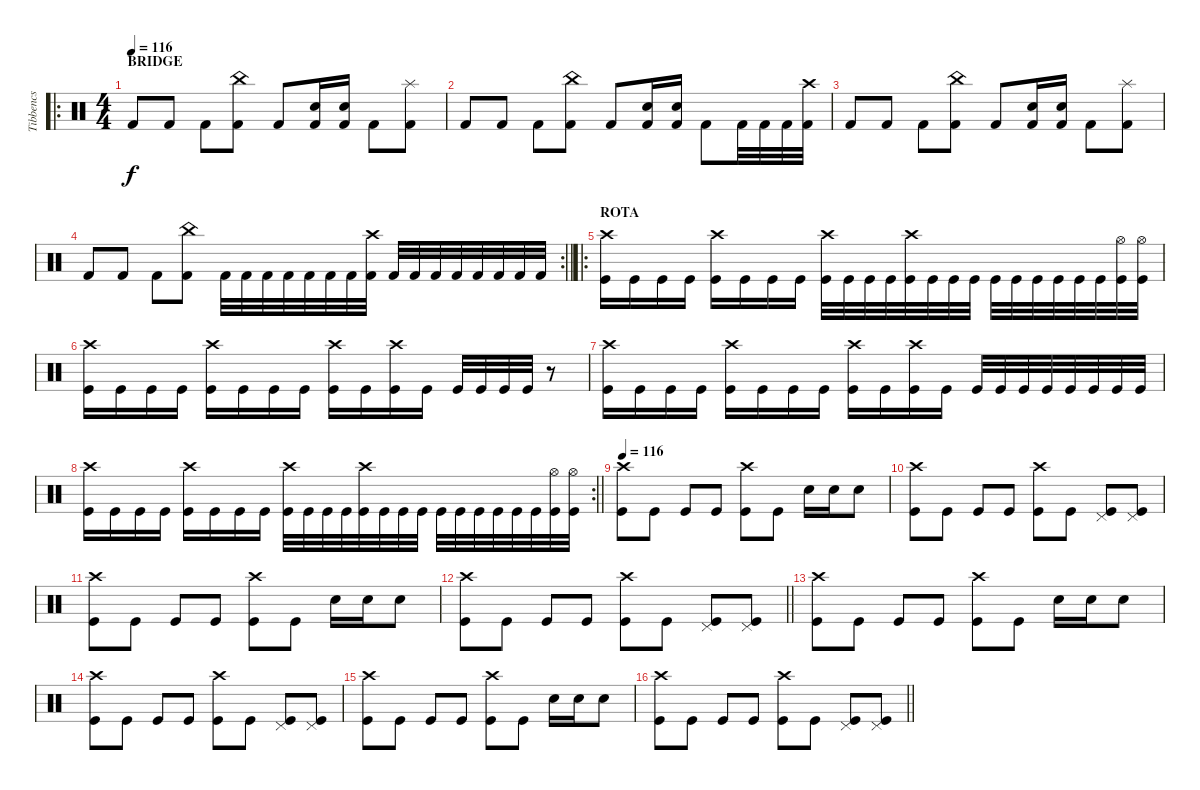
\track ("Tibbencs" "Tibbencs") {instrument percussion}
\staff {score}
\articulation defaults
\ro
\ts (4 4)
\section ("" "BRIDGE")
\tempo 116
\clef neutral
\ks c "Kick (hit) 2".8{dy f} "Kick (hit) 2".8 "Kick (hit) 2".8
("Kick (hit) 2" "China (hit)").8 "Kick (hit) 2".8 ("Kick (hit) 2" "Electric Snare (hit)").16 ("Kick (hit) 2" "Electric Snare (hit)").16 "Kick (hit) 2".8 ("Kick (hit) 2" "Splash (hit)").8 |
"Kick (hit) 2".8 "Kick (hit) 2".8 "Kick (hit) 2".8 ("Kick (hit) 2" "China (hit)").8 "Kick (hit) 2".8 ("Kick (hit) 2" "Electric Snare (hit)").16 ("Kick (hit) 2" "Electric Snare (hit)").16 "Kick (hit) 2".8 "Kick (hit) 2".32 "Kick (hit) 2".32 "Kick (hit) 2".32 ("Kick (hit) 2" "Crash high (hit)").32 |
"Kick (hit) 2".8 "Kick (hit) 2".8 "Kick (hit) 2".8 ("Kick (hit) 2" "China (hit)").8 "Kick (hit) 2".8 ("Kick (hit) 2" "Electric Snare (hit)").16 ("Kick (hit) 2" "Electric Snare (hit)").16 "Kick (hit) 2".8 ("Kick (hit) 2" "Splash (hit)").8 |
\rc 2
\barLineRight lightlight "Kick (hit) 2".8 "Kick (hit) 2".8 "Kick (hit) 2".8
("Kick (hit) 2" "China (hit)").8 "Kick (hit) 2".32 "Kick (hit) 2".32 "Kick (hit) 2".32 "Kick (hit) 2".32 "Kick (hit) 2".32 "Kick (hit) 2".32 "Kick (hit) 2".32 ("Kick (hit) 2" "Crash high (hit)").32 "Kick (hit) 2".32 "Kick (hit) 2".32 "Kick (hit) 2".32 "Kick (hit) 2".32 "Kick (hit) 2".32 "Kick (hit) 2".32 "Kick (hit) 2".32 "Kick (hit) 2".32 |
\ro
\section ("" "ROTA")
("Kick (hit)" "Crash high (hit)").16 "Kick (hit)".16 "Kick (hit)".16 "Kick (hit)".16 ("Kick (hit)" "Crash high (hit)").16 "Kick (hit)".16 "Kick (hit)".16 "Kick (hit)".16 ("Kick (hit)" "Crash high (hit)").32 "Kick (hit)".32 "Kick (hit)".32 "Kick (hit)".32 ("Kick (hit)" "Crash high (hit)").32 "Kick (hit)".32 "Kick (hit)".32 "Kick (hit)".32 "Kick (hit)".32 "Kick (hit)".32 "Kick (hit)".32 "Kick (hit)".32 "Kick (hit)".32 "Kick (hit)".32 ("Kick (hit)" "Hi-Hat (open)").32 ("Kick (hit)" "Hi-Hat (open)").32 |
("Kick (hit)" "Crash high (hit)").16 "Kick (hit)".16 "Kick (hit)".16 "Kick (hit)".16 ("Kick (hit)" "Crash high (hit)").16 "Kick (hit)".16 "Kick (hit)".16 "Kick (hit)".16 ("Kick (hit)" "Crash high (hit)").16 "Kick (hit)".16 ("Kick (hit)" "Crash high (hit)").16 "Kick (hit)".16 "Kick (hit)".32 "Kick (hit)".32 "Kick (hit)".32 "Kick (hit)".32 r.8 |
("Kick (hit)" "Crash high (hit)").16 "Kick (hit)".16 "Kick (hit)".16 "Kick (hit)".16 ("Kick (hit)" "Crash high (hit)").16 "Kick (hit)".16 "Kick (hit)".16 "Kick (hit)".16 ("Kick (hit)" "Crash high (hit)").16 "Kick (hit)".16 ("Kick (hit)" "Crash high (hit)").16 "Kick (hit)".16 "Kick (hit)".32 "Kick (hit)".32 "Kick (hit)".32 "Kick (hit)".32 "Kick (hit)".32 "Kick (hit)".32 "Kick (hit)".32 "Kick (hit)".32 |
\rc 2
\barLineRight lightlight
("Kick (hit)" "Crash high (hit)").16 "Kick (hit)".16 "Kick (hit)".16 "Kick (hit)".16 ("Kick (hit)" "Crash high (hit)").16 "Kick (hit)".16 "Kick (hit)".16 "Kick (hit)".16 ("Kick (hit)" "Crash high (hit)").32 "Kick (hit)".32 "Kick (hit)".32 "Kick (hit)".32 ("Kick (hit)" "Crash high (hit)").32 "Kick (hit)".32 "Kick (hit)".32 "Kick (hit)".32 "Kick (hit)".32 "Kick (hit)".32 "Kick (hit)".32 "Kick (hit)".32 "Kick (hit)".32 "Kick (hit)".32 ("Kick (hit)" "Hi-Hat (open)").32 ("Kick (hit)" "Hi-Hat (open)").32 |
\tempo 116
("Kick (hit)" "Crash high (hit)").8 "Kick (hit)".8 "Kick (hit)".8 "Kick (hit)".8 ("Kick (hit)" "Crash high (hit)").8 "Kick (hit)".8 "Electric Snare (hit)".16 "Electric Snare (hit)".16 "Snare (hit) 2".8 |
("Kick (hit)" "Crash high (hit)").8 "Kick (hit)".8 "Kick (hit)".8 "Kick (hit)".8 ("Kick (hit)" "Crash high (hit)").8 "Kick (hit)".8 ("Kick (hit)" "Pedal Hi-Hat (hit)").8 ("Kick (hit)" "Pedal Hi-Hat (hit)").8 |
("Kick (hit)" "Crash high (hit)").8 "Kick (hit)".8 "Kick (hit)".8 "Kick (hit)".8 ("Kick (hit)" "Crash high (hit)").8 "Kick (hit)".8 "Electric Snare (hit)".16 "Electric Snare (hit)".16 "Snare (hit) 2".8 |
\barLineRight lightlight
("Kick (hit)" "Crash high (hit)").8 "Kick (hit)".8 "Kick (hit)".8 "Kick (hit)".8 ("Kick (hit)" "Crash high (hit)").8 "Kick (hit)".8 ("Kick (hit)" "Pedal Hi-Hat (hit)").8 ("Kick (hit)" "Pedal Hi-Hat (hit)").8 |
("Kick (hit)" "Crash high (hit)").8 "Kick (hit)".8 "Kick (hit)".8 "Kick (hit)".8 ("Kick (hit)" "Crash high (hit)").8 "Kick (hit)".8 "Electric Snare (hit)".16 "Electric Snare (hit)".16 "Snare (hit) 2".8 |
("Kick (hit)" "Crash high (hit)").8 "Kick (hit)".8 "Kick (hit)".8 "Kick (hit)".8 ("Kick (hit)" "Crash high (hit)").8 "Kick (hit)".8 ("Kick (hit)" "Pedal Hi-Hat (hit)").8 ("Kick (hit)" "Pedal Hi-Hat (hit)").8 |
("Kick (hit)" "Crash high (hit)").8 "Kick (hit)".8 "Kick (hit)".8 "Kick (hit)".8 ("Kick (hit)" "Crash high (hit)").8 "Kick (hit)".8 "Electric Snare (hit)".16 "Electric Snare (hit)".16 "Snare (hit) 2".8 |
\barLineRight lightlight
("Kick (hit)" "Crash high (hit)").8 "Kick (hit)".8 "Kick (hit)".8 "Kick (hit)".8 ("Kick (hit)" "Crash high (hit)").8 "Kick (hit)".8 ("Kick (hit)" "Pedal Hi-Hat (hit)").8 ("Kick (hit)" "Pedal Hi-Hat (hit)").8
